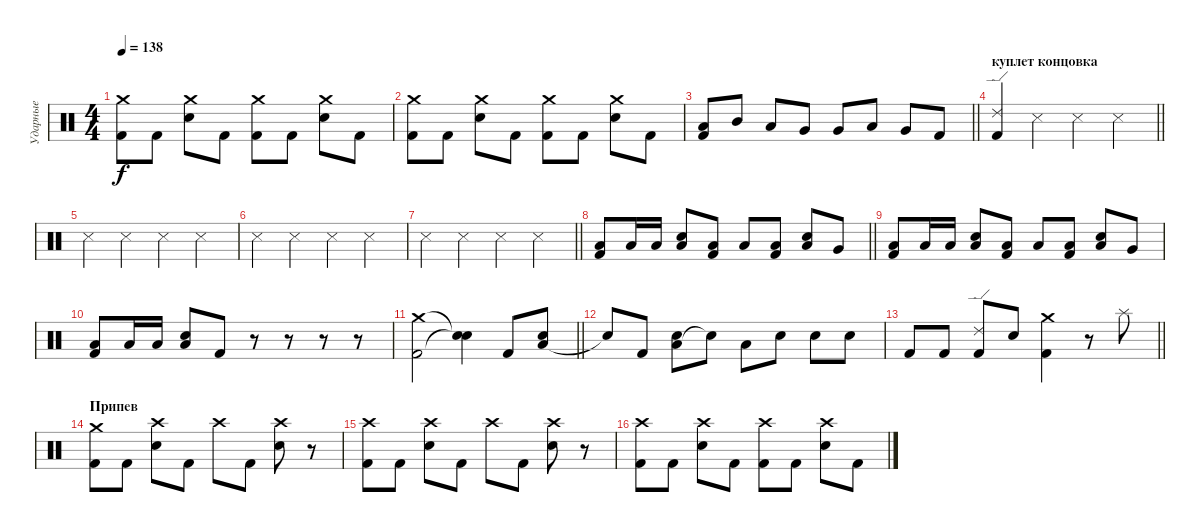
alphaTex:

\track ("Ударные" "Ударные") {instrument percussion}
\staff {score}
\articulation defaults
\ts (4 4)
\tempo 138
\clef neutral
\ks c
("Crash medium (hit)" "Kick (hit) 2").8{dy f} "Kick (hit) 2".8 ("Crash medium (hit)" "Snare (hit) 2").8 "Kick (hit) 2".8 ("Crash medium (hit)" "Kick (hit) 2").8 "Kick (hit) 2".8 ("Crash medium (hit)" "Snare (hit) 2").8 "Kick (hit) 2".8 |
("Crash medium (hit)" "Kick (hit) 2").8 "Kick (hit) 2".8 ("Crash medium (hit)" "Snare (hit) 2").8 "Kick (hit) 2".8 ("Crash medium (hit)" "Kick (hit) 2").8 "Kick (hit) 2".8 ("Crash medium (hit)" "Snare (hit) 2").8 "Kick (hit) 2".8 |
\barLineRight lightlight
("Low Floor Tom (hit)" "Kick (hit) 2").8 "Mid Tom (hit)".8 "Low Tom (hit)".8 "Very Low Tom (hit)".8 "Very Low Tom (hit)".8 "Low Floor Tom (hit)".8 "Very Low Tom (hit)".8 "Kick (hit) 2".8 |
\section ("" "куплет концовка")
\barLineRight lightlight
("Ride (edge) 2" "Kick (hit) 2").4 "Snare (side stick) 3".4 "Snare (side stick) 3".4 "Snare (side stick) 3".4 |
"Snare (side stick) 3".4 "Snare (side stick) 3".4 "Snare (side stick) 3".4 "Snare (side stick) 3".4 |
"Snare (side stick) 3".4 "Snare (side stick) 3".4 "Snare (side stick) 3".4 "Snare (side stick) 3".4 |
\barLineRight lightlight "Snare (side stick) 3".4 "Snare (side stick) 3".4 "Snare (side stick) 3".4 "Snare (side stick) 3".4
|
\barLineRight lightlight
("Low Tom (hit)" "Kick (hit) 2").8 "Low Floor Tom (hit)".16 "Low Floor Tom (hit)".16 ("Low Floor Tom (hit)" "Snare (hit) 2").8 ("Low Floor Tom (hit)" "Kick (hit) 2").8 "Low Floor Tom (hit)".8 ("Low Floor Tom (hit)" "Kick (hit) 2").8 ("Low Floor Tom (hit)" "Snare (hit) 2").8 "Very Low Tom (hit)".8 |
("Low Tom (hit)" "Kick (hit) 2").8 "Low Floor Tom (hit)".16 "Low Floor Tom (hit)".16 ("Low Floor Tom (hit)" "Snare (hit) 2").8 ("Low Floor Tom (hit)" "Kick (hit) 2").8 "Low Floor Tom (hit)".8 ("Low Floor Tom (hit)" "Kick (hit) 2").8 ("Low Floor Tom (hit)" "Snare (hit) 2").8 "Very Low Tom (hit)".8 |
("Low Tom (hit)" "Kick (hit) 2").8 "Low Floor Tom (hit)".16 "Low Floor Tom (hit)".16 ("Low Floor Tom (hit)" "Snare (hit) 2").8 "Kick (hit) 2".8 r.8 r.8 r.8 r.8 |
\barLineRight lightlight
("Crash medium (hit)" "Kick (hit) 2").2 ("Snare (hit)"{t} "Snare (hit)"{t}).4 "Kick (hit) 2".8 ("Low Floor Tom (hit)" "Snare (hit) 2").8 |
"Snare (hit) 2"{t}.8 "Kick (hit) 2".8 ("Low Floor Tom (hit)" "Snare (hit) 2").8 "Snare (hit) 2"{t}.8 "Low Floor Tom (hit)".8 "Snare (hit) 2".8 "Snare (hit) 2".8 "Snare (hit) 2".8 |
\barLineRight lightlight "Kick (hit) 2".8 "Kick (hit) 2".8
("Ride (edge) 2" "Kick (hit) 2").8 "Snare (hit) 2".8 ("Crash medium (hit)" "Kick (hit) 2").4 r.8 "Splash (hit)".8 |
\section ("" "Припев")
("Crash medium (hit)" "Kick (hit) 2").8 "Kick (hit) 2".8 ("Crash high (hit)" "Snare (hit) 2").8 "Kick (hit) 2".8 "Crash high (hit)".8 "Kick (hit) 2".8 ("Crash high (hit)" "Snare (hit) 2").8 r.8 |
("Crash high (hit)" "Kick (hit) 2").8 "Kick (hit) 2".8 ("Crash high (hit)" "Snare (hit) 2").8 "Kick (hit) 2".8 "Crash high (hit)".8 "Kick (hit) 2".8 ("Crash high (hit)" "Snare (hit) 2").8 r.8 |
("Crash high (hit)" "Kick (hit) 2").8 "Kick (hit) 2".8 ("Crash high (hit)" "Snare (hit) 2").8 "Kick (hit) 2".8 ("Crash high (hit)" "Kick (hit) 2").8 "Kick (hit) 2".8 ("Crash high (hit)" "Snare (hit) 2").8 "Kick (hit) 2".8
